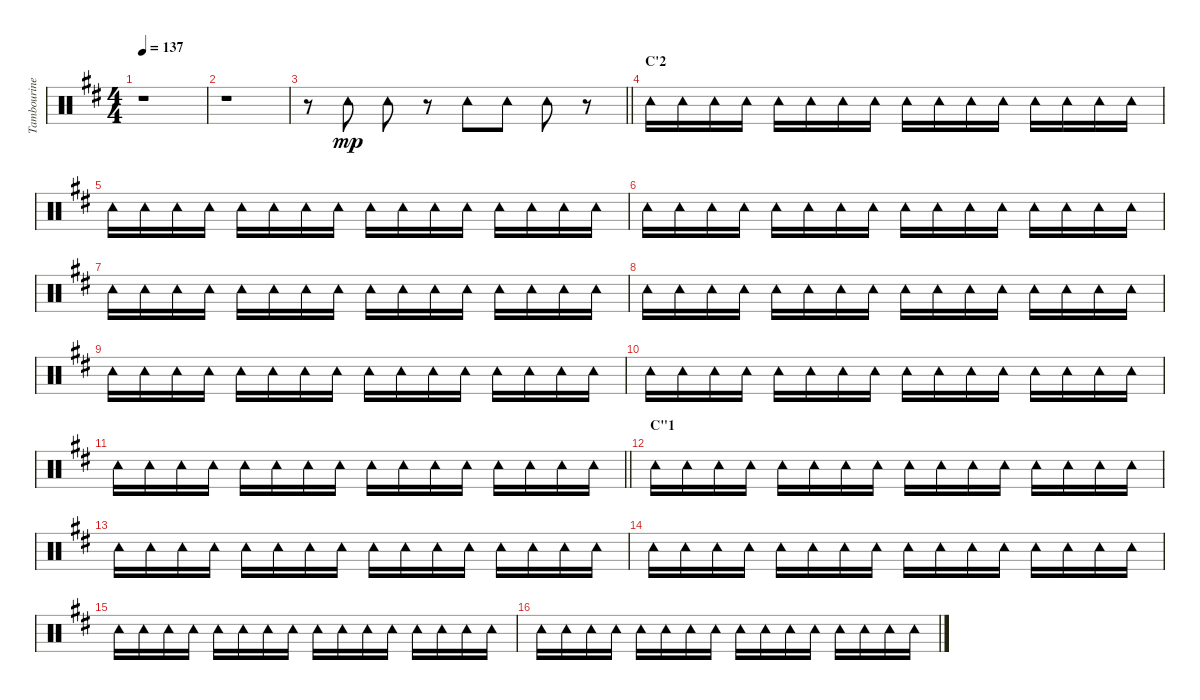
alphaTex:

\track ("Tambourine" "Tambourine") {instrument percussion}
\staff {score}
\articulation defaults
\ts (4 4)
\tempo 137
\clef neutral
\ks d
r.1{dy mp} |
r.1 |
\barLineRight lightlight
r.8 "Tambourine (hit)".8 "Tambourine (hit)".8 r.8 "Tambourine (hit)".8 "Tambourine (hit)".8 "Tambourine (hit)".8 r.8 |
\section ("" "C'2")
"Tambourine (hit)".16 "Tambourine (hit)".16 "Tambourine (hit)".16 "Tambourine (hit)".16 "Tambourine (hit)".16 "Tambourine (hit)".16 "Tambourine (hit)".16 "Tambourine (hit)".16 "Tambourine (hit)".16 "Tambourine (hit)".16 "Tambourine (hit)".16 "Tambourine (hit)".16 "Tambourine (hit)".16 "Tambourine (hit)".16 "Tambourine (hit)".16 "Tambourine (hit)".16 |
"Tambourine (hit)".16 "Tambourine (hit)".16 "Tambourine (hit)".16 "Tambourine (hit)".16 "Tambourine (hit)".16 "Tambourine (hit)".16 "Tambourine (hit)".16 "Tambourine (hit)".16 "Tambourine (hit)".16 "Tambourine (hit)".16 "Tambourine (hit)".16 "Tambourine (hit)".16 "Tambourine (hit)".16 "Tambourine (hit)".16 "Tambourine (hit)".16 "Tambourine (hit)".16 |
"Tambourine (hit)".16 "Tambourine (hit)".16 "Tambourine (hit)".16 "Tambourine (hit)".16 "Tambourine (hit)".16 "Tambourine (hit)".16 "Tambourine (hit)".16 "Tambourine (hit)".16 "Tambourine (hit)".16 "Tambourine (hit)".16 "Tambourine (hit)".16 "Tambourine (hit)".16 "Tambourine (hit)".16 "Tambourine (hit)".16 "Tambourine (hit)".16 "Tambourine (hit)".16 |
"Tambourine (hit)".16 "Tambourine (hit)".16 "Tambourine (hit)".16 "Tambourine (hit)".16 "Tambourine (hit)".16 "Tambourine (hit)".16 "Tambourine (hit)".16 "Tambourine (hit)".16 "Tambourine (hit)".16 "Tambourine (hit)".16 "Tambourine (hit)".16 "Tambourine (hit)".16 "Tambourine (hit)".16 "Tambourine (hit)".16 "Tambourine (hit)".16 "Tambourine (hit)".16 |
"Tambourine (hit)".16 "Tambourine (hit)".16 "Tambourine (hit)".16 "Tambourine (hit)".16 "Tambourine (hit)".16 "Tambourine (hit)".16 "Tambourine (hit)".16 "Tambourine (hit)".16 "Tambourine (hit)".16 "Tambourine (hit)".16 "Tambourine (hit)".16 "Tambourine (hit)".16 "Tambourine (hit)".16 "Tambourine (hit)".16 "Tambourine (hit)".16 "Tambourine (hit)".16 |
"Tambourine (hit)".16 "Tambourine (hit)".16 "Tambourine (hit)".16 "Tambourine (hit)".16 "Tambourine (hit)".16 "Tambourine (hit)".16 "Tambourine (hit)".16 "Tambourine (hit)".16 "Tambourine (hit)".16 "Tambourine (hit)".16 "Tambourine (hit)".16 "Tambourine (hit)".16 "Tambourine (hit)".16 "Tambourine (hit)".16 "Tambourine (hit)".16 "Tambourine (hit)".16 |
"Tambourine (hit)".16 "Tambourine (hit)".16 "Tambourine (hit)".16 "Tambourine (hit)".16 "Tambourine (hit)".16 "Tambourine (hit)".16 "Tambourine (hit)".16 "Tambourine (hit)".16 "Tambourine (hit)".16 "Tambourine (hit)".16 "Tambourine (hit)".16 "Tambourine (hit)".16 "Tambourine (hit)".16 "Tambourine (hit)".16 "Tambourine (hit)".16 "Tambourine (hit)".16 |
\barLineRight lightlight "Tambourine (hit)".16 "Tambourine (hit)".16 "Tambourine (hit)".16 "Tambourine (hit)".16 "Tambourine (hit)".16 "Tambourine (hit)".16 "Tambourine (hit)".16 "Tambourine (hit)".16 "Tambourine (hit)".16 "Tambourine (hit)".16 "Tambourine (hit)".16 "Tambourine (hit)".16 "Tambourine (hit)".16 "Tambourine (hit)".16 "Tambourine (hit)".16 "Tambourine (hit)".16
|
\section ("" "C\"1")
"Tambourine (hit)".16 "Tambourine (hit)".16 "Tambourine (hit)".16 "Tambourine (hit)".16 "Tambourine (hit)".16 "Tambourine (hit)".16 "Tambourine (hit)".16 "Tambourine (hit)".16 "Tambourine (hit)".16 "Tambourine (hit)".16 "Tambourine (hit)".16 "Tambourine (hit)".16 "Tambourine (hit)".16 "Tambourine (hit)".16 "Tambourine (hit)".16 "Tambourine (hit)".16 |
"Tambourine (hit)".16 "Tambourine (hit)".16 "Tambourine (hit)".16 "Tambourine (hit)".16 "Tambourine (hit)".16 "Tambourine (hit)".16 "Tambourine (hit)".16 "Tambourine (hit)".16 "Tambourine (hit)".16 "Tambourine (hit)".16 "Tambourine (hit)".16 "Tambourine (hit)".16 "Tambourine (hit)".16 "Tambourine (hit)".16 "Tambourine (hit)".16 "Tambourine (hit)".16 |
"Tambourine (hit)".16 "Tambourine (hit)".16 "Tambourine (hit)".16 "Tambourine (hit)".16 "Tambourine (hit)".16 "Tambourine (hit)".16 "Tambourine (hit)".16 "Tambourine (hit)".16 "Tambourine (hit)".16 "Tambourine (hit)".16 "Tambourine (hit)".16 "Tambourine (hit)".16 "Tambourine (hit)".16 "Tambourine (hit)".16 "Tambourine (hit)".16 "Tambourine (hit)".16 |
"Tambourine (hit)".16 "Tambourine (hit)".16 "Tambourine (hit)".16 "Tambourine (hit)".16 "Tambourine (hit)".16 "Tambourine (hit)".16 "Tambourine (hit)".16 "Tambourine (hit)".16 "Tambourine (hit)".16 "Tambourine (hit)".16 "Tambourine (hit)".16 "Tambourine (hit)".16 "Tambourine (hit)".16 "Tambourine (hit)".16 "Tambourine (hit)".16 "Tambourine (hit)".16 |
"Tambourine (hit)".16 "Tambourine (hit)".16 "Tambourine (hit)".16 "Tambourine (hit)".16 "Tambourine (hit)".16 "Tambourine (hit)".16 "Tambourine (hit)".16 "Tambourine (hit)".16 "Tambourine (hit)".16 "Tambourine (hit)".16 "Tambourine (hit)".16 "Tambourine (hit)".16 "Tambourine (hit)".16 "Tambourine (hit)".16 "Tambourine (hit)".16 "Tambourine (hit)".16
